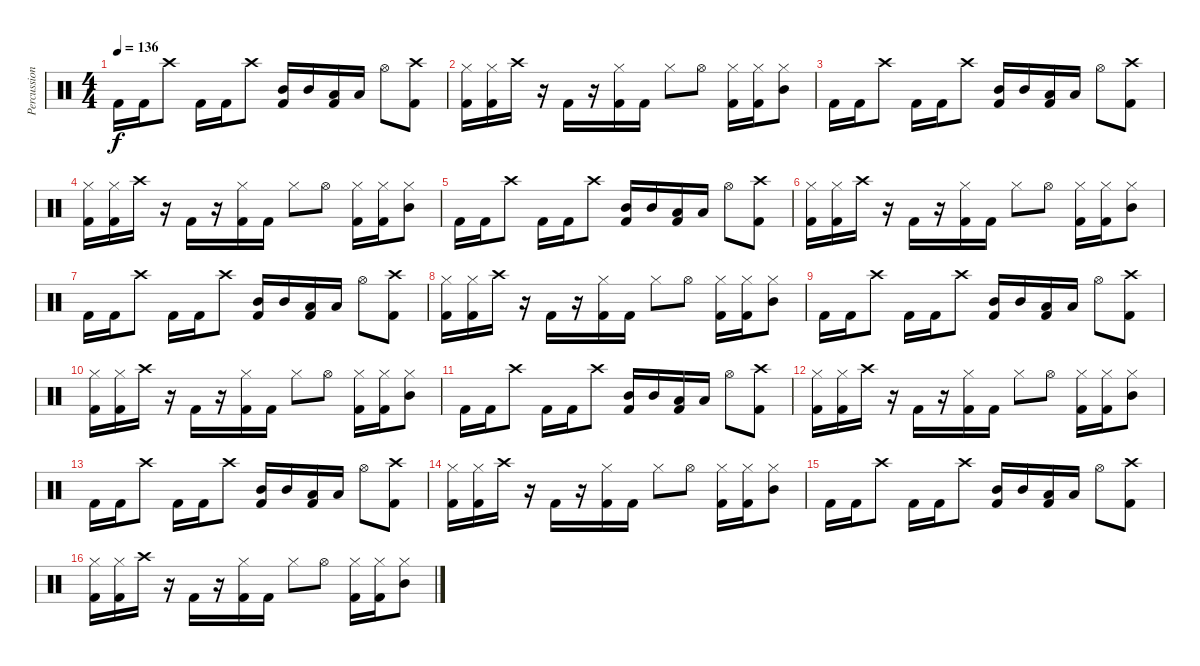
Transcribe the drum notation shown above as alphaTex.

\track ("Percussion" "Percussion") {instrument percussion}
\staff {score}
\articulation defaults
\ts (4 4)
\tempo 136
\clef neutral
\ks c "Kick (hit) 2".16{dy f} "Kick (hit) 2".16 "Crash high (hit)".8 "Kick (hit) 2".16 "Kick (hit) 2".16 "Crash high (hit)".8
("Mid Tom (hit)" "Kick (hit) 2").16 "Mid Tom (hit)".16 ("Low Tom (hit)" "Kick (hit) 2").16 "Low Tom (hit)".16 "Hi-Hat (open)".8 ("Crash high (hit)" "Kick (hit) 2").8 |
("Kick (hit) 2" "Hi-Hat (closed)").16 ("Kick (hit) 2" "Hi-Hat (closed)").16 "Crash high (hit)".16 r.16 "Kick (hit) 2".16 r.16 ("Kick (hit) 2" "Hi-Hat (closed)").16 "Kick (hit) 2".16 "Hi-Hat (closed)".8 "Hi-Hat (open)".8 ("Kick (hit) 2" "Hi-Hat (closed)").16 ("Kick (hit) 2" "Hi-Hat (closed)").16 ("Hi-Hat (closed)" "Mid Tom (hit)").8 |
"Kick (hit) 2".16 "Kick (hit) 2".16 "Crash high (hit)".8 "Kick (hit) 2".16 "Kick (hit) 2".16 "Crash high (hit)".8 ("Mid Tom (hit)" "Kick (hit) 2").16 "Mid Tom (hit)".16 ("Low Tom (hit)" "Kick (hit) 2").16 "Low Tom (hit)".16 "Hi-Hat (open)".8 ("Crash high (hit)" "Kick (hit) 2").8 |
("Kick (hit) 2" "Hi-Hat (closed)").16 ("Kick (hit) 2" "Hi-Hat (closed)").16 "Crash high (hit)".16 r.16 "Kick (hit) 2".16 r.16 ("Kick (hit) 2" "Hi-Hat (closed)").16 "Kick (hit) 2".16 "Hi-Hat (closed)".8 "Hi-Hat (open)".8 ("Kick (hit) 2" "Hi-Hat (closed)").16 ("Kick (hit) 2" "Hi-Hat (closed)").16 ("Hi-Hat (closed)" "Mid Tom (hit)").8 |
"Kick (hit) 2".16 "Kick (hit) 2".16 "Crash high (hit)".8 "Kick (hit) 2".16 "Kick (hit) 2".16 "Crash high (hit)".8 ("Mid Tom (hit)" "Kick (hit) 2").16 "Mid Tom (hit)".16 ("Low Tom (hit)" "Kick (hit) 2").16 "Low Tom (hit)".16 "Hi-Hat (open)".8 ("Crash high (hit)" "Kick (hit) 2").8 |
("Kick (hit) 2" "Hi-Hat (closed)").16 ("Kick (hit) 2" "Hi-Hat (closed)").16 "Crash high (hit)".16 r.16 "Kick (hit) 2".16 r.16 ("Kick (hit) 2" "Hi-Hat (closed)").16 "Kick (hit) 2".16 "Hi-Hat (closed)".8 "Hi-Hat (open)".8 ("Kick (hit) 2" "Hi-Hat (closed)").16 ("Kick (hit) 2" "Hi-Hat (closed)").16 ("Hi-Hat (closed)" "Mid Tom (hit)").8 |
"Kick (hit) 2".16 "Kick (hit) 2".16 "Crash high (hit)".8 "Kick (hit) 2".16 "Kick (hit) 2".16 "Crash high (hit)".8 ("Mid Tom (hit)" "Kick (hit) 2").16 "Mid Tom (hit)".16 ("Low Tom (hit)" "Kick (hit) 2").16 "Low Tom (hit)".16 "Hi-Hat (open)".8 ("Crash high (hit)" "Kick (hit) 2").8 |
("Kick (hit) 2" "Hi-Hat (closed)").16 ("Kick (hit) 2" "Hi-Hat (closed)").16 "Crash high (hit)".16 r.16 "Kick (hit) 2".16 r.16 ("Kick (hit) 2" "Hi-Hat (closed)").16 "Kick (hit) 2".16 "Hi-Hat (closed)".8 "Hi-Hat (open)".8 ("Kick (hit) 2" "Hi-Hat (closed)").16 ("Kick (hit) 2" "Hi-Hat (closed)").16 ("Hi-Hat (closed)" "Mid Tom (hit)").8 |
"Kick (hit) 2".16 "Kick (hit) 2".16 "Crash high (hit)".8 "Kick (hit) 2".16 "Kick (hit) 2".16 "Crash high (hit)".8 ("Mid Tom (hit)" "Kick (hit) 2").16 "Mid Tom (hit)".16 ("Low Tom (hit)" "Kick (hit) 2").16 "Low Tom (hit)".16 "Hi-Hat (open)".8 ("Crash high (hit)" "Kick (hit) 2").8 |
("Kick (hit) 2" "Hi-Hat (closed)").16 ("Kick (hit) 2" "Hi-Hat (closed)").16 "Crash high (hit)".16 r.16 "Kick (hit) 2".16 r.16 ("Kick (hit) 2" "Hi-Hat (closed)").16 "Kick (hit) 2".16 "Hi-Hat (closed)".8 "Hi-Hat (open)".8 ("Kick (hit) 2" "Hi-Hat (closed)").16 ("Kick (hit) 2" "Hi-Hat (closed)").16 ("Hi-Hat (closed)" "Mid Tom (hit)").8 |
"Kick (hit) 2".16 "Kick (hit) 2".16 "Crash high (hit)".8 "Kick (hit) 2".16 "Kick (hit) 2".16 "Crash high (hit)".8 ("Mid Tom (hit)" "Kick (hit) 2").16 "Mid Tom (hit)".16 ("Low Tom (hit)" "Kick (hit) 2").16 "Low Tom (hit)".16 "Hi-Hat (open)".8 ("Crash high (hit)" "Kick (hit) 2").8 |
("Kick (hit) 2" "Hi-Hat (closed)").16 ("Kick (hit) 2" "Hi-Hat (closed)").16 "Crash high (hit)".16 r.16 "Kick (hit) 2".16 r.16 ("Kick (hit) 2" "Hi-Hat (closed)").16 "Kick (hit) 2".16 "Hi-Hat (closed)".8 "Hi-Hat (open)".8 ("Kick (hit) 2" "Hi-Hat (closed)").16 ("Kick (hit) 2" "Hi-Hat (closed)").16 ("Hi-Hat (closed)" "Mid Tom (hit)").8 |
"Kick (hit) 2".16 "Kick (hit) 2".16 "Crash high (hit)".8 "Kick (hit) 2".16 "Kick (hit) 2".16 "Crash high (hit)".8 ("Mid Tom (hit)" "Kick (hit) 2").16 "Mid Tom (hit)".16 ("Low Tom (hit)" "Kick (hit) 2").16 "Low Tom (hit)".16 "Hi-Hat (open)".8 ("Crash high (hit)" "Kick (hit) 2").8 |
("Kick (hit) 2" "Hi-Hat (closed)").16 ("Kick (hit) 2" "Hi-Hat (closed)").16 "Crash high (hit)".16 r.16 "Kick (hit) 2".16 r.16 ("Kick (hit) 2" "Hi-Hat (closed)").16 "Kick (hit) 2".16 "Hi-Hat (closed)".8 "Hi-Hat (open)".8 ("Kick (hit) 2" "Hi-Hat (closed)").16 ("Kick (hit) 2" "Hi-Hat (closed)").16 ("Hi-Hat (closed)" "Mid Tom (hit)").8 |
"Kick (hit) 2".16 "Kick (hit) 2".16 "Crash high (hit)".8 "Kick (hit) 2".16 "Kick (hit) 2".16 "Crash high (hit)".8 ("Mid Tom (hit)" "Kick (hit) 2").16 "Mid Tom (hit)".16 ("Low Tom (hit)" "Kick (hit) 2").16 "Low Tom (hit)".16 "Hi-Hat (open)".8 ("Crash high (hit)" "Kick (hit) 2").8 |
("Kick (hit) 2" "Hi-Hat (closed)").16 ("Kick (hit) 2" "Hi-Hat (closed)").16 "Crash high (hit)".16 r.16 "Kick (hit) 2".16 r.16 ("Kick (hit) 2" "Hi-Hat (closed)").16 "Kick (hit) 2".16 "Hi-Hat (closed)".8 "Hi-Hat (open)".8 ("Kick (hit) 2" "Hi-Hat (closed)").16 ("Kick (hit) 2" "Hi-Hat (closed)").16 ("Hi-Hat (closed)" "Mid Tom (hit)").8
